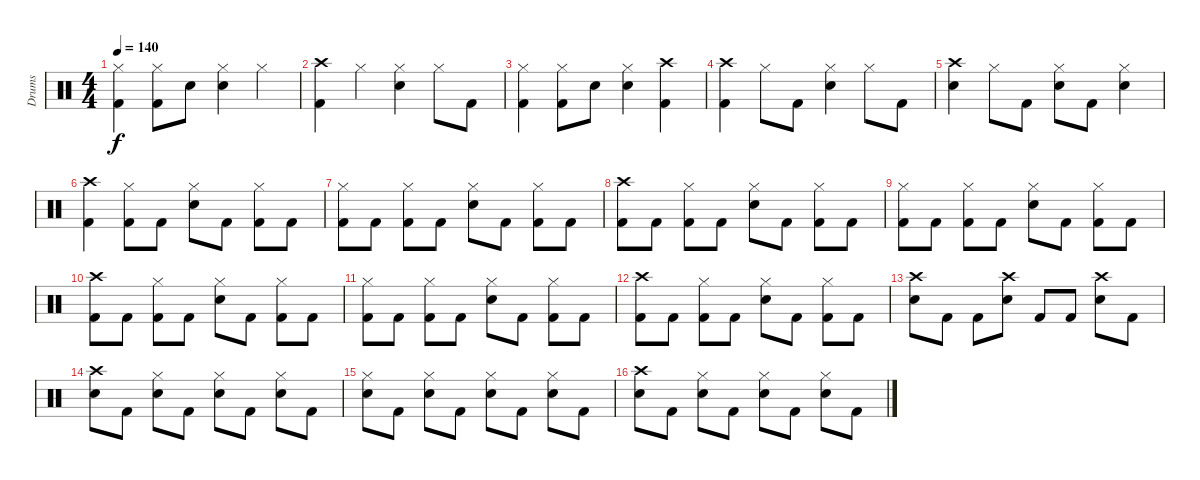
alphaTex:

\track ("Drums" "Drums") {instrument percussion}
\staff {score}
\articulation defaults
\ts (4 4)
\tempo 140
\clef neutral
\ks c
("Hi-Hat (closed)" "Kick (hit) 2").4{dy f} ("Hi-Hat (closed)" "Kick (hit) 2").8 "Snare (hit)".8 ("Hi-Hat (closed)" "Electric Snare (hit)").4 "Hi-Hat (closed)".4 |
("Crash high (hit)" "Kick (hit) 2").4 "Hi-Hat (closed)".4 ("Hi-Hat (closed)" "Electric Snare (hit)").4 "Hi-Hat (closed)".8 "Kick (hit) 2".8 |
("Hi-Hat (closed)" "Kick (hit) 2").4 ("Hi-Hat (closed)" "Kick (hit) 2").8 "Snare (hit)".8 ("Hi-Hat (closed)" "Electric Snare (hit)").4 ("Crash high (hit)" "Kick (hit) 2").4 |
("Crash high (hit)" "Kick (hit) 2").4 "Hi-Hat (closed)".8 "Kick (hit) 2".8 ("Hi-Hat (closed)" "Electric Snare (hit)").4 "Hi-Hat (closed)".8 "Kick (hit) 2".8 |
("Crash high (hit)" "Electric Snare (hit)").4 "Hi-Hat (closed)".8 "Kick (hit) 2".8 ("Hi-Hat (closed)" "Electric Snare (hit)").8 "Kick (hit) 2".8 ("Hi-Hat (closed)" "Electric Snare (hit)").4 |
("Crash high (hit)" "Kick (hit) 2").4 ("Hi-Hat (closed)" "Kick (hit) 2").8 "Kick (hit) 2".8 ("Hi-Hat (closed)" "Electric Snare (hit)").8 "Kick (hit) 2".8 ("Hi-Hat (closed)" "Kick (hit) 2").8 "Kick (hit) 2".8 |
("Hi-Hat (closed)" "Kick (hit) 2").8 "Kick (hit) 2".8 ("Hi-Hat (closed)" "Kick (hit) 2").8 "Kick (hit) 2".8 ("Hi-Hat (closed)" "Electric Snare (hit)").8 "Kick (hit) 2".8 ("Hi-Hat (closed)" "Kick (hit) 2").8 "Kick (hit) 2".8 |
("Crash high (hit)" "Kick (hit) 2").8 "Kick (hit) 2".8 ("Hi-Hat (closed)" "Kick (hit) 2").8 "Kick (hit) 2".8 ("Hi-Hat (closed)" "Electric Snare (hit)").8 "Kick (hit) 2".8 ("Hi-Hat (closed)" "Kick (hit) 2").8 "Kick (hit) 2".8 |
("Hi-Hat (closed)" "Kick (hit) 2").8 "Kick (hit) 2".8 ("Hi-Hat (closed)" "Kick (hit) 2").8 "Kick (hit) 2".8 ("Hi-Hat (closed)" "Electric Snare (hit)").8 "Kick (hit) 2".8 ("Hi-Hat (closed)" "Kick (hit) 2").8 "Kick (hit) 2".8 |
("Crash high (hit)" "Kick (hit) 2").8 "Kick (hit) 2".8 ("Hi-Hat (closed)" "Kick (hit) 2").8 "Kick (hit) 2".8 ("Hi-Hat (closed)" "Electric Snare (hit)").8 "Kick (hit) 2".8 ("Hi-Hat (closed)" "Kick (hit) 2").8 "Kick (hit) 2".8 |
("Hi-Hat (closed)" "Kick (hit) 2").8 "Kick (hit) 2".8 ("Hi-Hat (closed)" "Kick (hit) 2").8 "Kick (hit) 2".8 ("Hi-Hat (closed)" "Electric Snare (hit)").8 "Kick (hit) 2".8 ("Hi-Hat (closed)" "Kick (hit) 2").8 "Kick (hit) 2".8 |
("Crash high (hit)" "Kick (hit) 2").8 "Kick (hit) 2".8 ("Hi-Hat (closed)" "Kick (hit) 2").8 "Kick (hit) 2".8 ("Hi-Hat (closed)" "Electric Snare (hit)").8 "Kick (hit) 2".8 ("Hi-Hat (closed)" "Kick (hit) 2").8 "Kick (hit) 2".8 |
("Crash high (hit)" "Electric Snare (hit)").8 "Kick (hit) 2".8 "Kick (hit) 2".8 ("Crash high (hit)" "Electric Snare (hit)").8 "Kick (hit) 2".8 "Kick (hit) 2".8 ("Crash high (hit)" "Electric Snare (hit)").8 "Kick (hit) 2".8 |
("Crash high (hit)" "Electric Snare (hit)").8 "Kick (hit) 2".8 ("Hi-Hat (closed)" "Electric Snare (hit)").8 "Kick (hit) 2".8 ("Hi-Hat (closed)" "Electric Snare (hit)").8 "Kick (hit) 2".8 ("Hi-Hat (closed)" "Electric Snare (hit)").8 "Kick (hit) 2".8 |
("Hi-Hat (closed)" "Electric Snare (hit)").8 "Kick (hit) 2".8 ("Hi-Hat (closed)" "Electric Snare (hit)").8 "Kick (hit) 2".8 ("Hi-Hat (closed)" "Electric Snare (hit)").8 "Kick (hit) 2".8 ("Hi-Hat (closed)" "Electric Snare (hit)").8 "Kick (hit) 2".8 |
("Crash high (hit)" "Electric Snare (hit)").8 "Kick (hit) 2".8 ("Hi-Hat (closed)" "Electric Snare (hit)").8 "Kick (hit) 2".8 ("Hi-Hat (closed)" "Electric Snare (hit)").8 "Kick (hit) 2".8 ("Hi-Hat (closed)" "Electric Snare (hit)").8 "Kick (hit) 2".8
